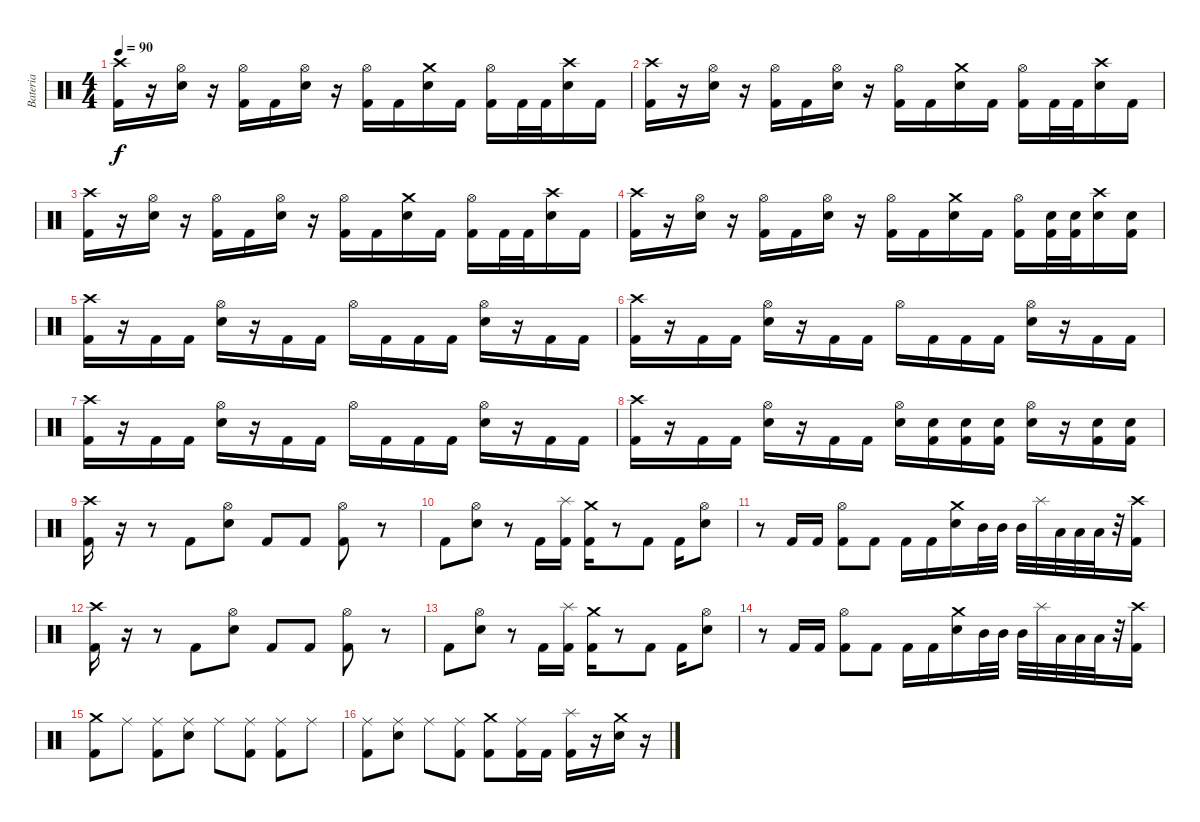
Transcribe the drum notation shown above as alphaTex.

\track ("Bateria" "Bateria") {instrument percussion}
\staff {score}
\articulation defaults
\ts (4 4)
\tempo 90
\clef neutral
\ks c
("Crash high (hit)" "Kick (hit) 2").16{dy f} r.16 ("Hi-Hat (open)" "Snare (hit) 2").16 r.16 ("Hi-Hat (open)" "Kick (hit) 2").16 "Kick (hit) 2".16 ("Hi-Hat (open)" "Snare (hit) 2").16 r.16 ("Hi-Hat (open)" "Kick (hit) 2").16 "Kick (hit) 2".16 ("Crash medium (hit)" "Snare (hit) 2").16 "Kick (hit) 2".16 ("Hi-Hat (open)" "Kick (hit) 2").16 "Kick (hit) 2".32 "Kick (hit) 2".32 ("Crash high (hit)" "Snare (hit) 2").16 "Kick (hit) 2".16 |
("Crash high (hit)" "Kick (hit) 2").16 r.16 ("Hi-Hat (open)" "Snare (hit) 2").16 r.16 ("Hi-Hat (open)" "Kick (hit) 2").16 "Kick (hit) 2".16 ("Hi-Hat (open)" "Snare (hit) 2").16 r.16 ("Hi-Hat (open)" "Kick (hit) 2").16 "Kick (hit) 2".16 ("Crash medium (hit)" "Snare (hit) 2").16 "Kick (hit) 2".16 ("Hi-Hat (open)" "Kick (hit) 2").16 "Kick (hit) 2".32 "Kick (hit) 2".32 ("Crash high (hit)" "Snare (hit) 2").16 "Kick (hit) 2".16 |
("Crash high (hit)" "Kick (hit) 2").16 r.16 ("Hi-Hat (open)" "Snare (hit) 2").16 r.16 ("Hi-Hat (open)" "Kick (hit) 2").16 "Kick (hit) 2".16 ("Hi-Hat (open)" "Snare (hit) 2").16 r.16 ("Hi-Hat (open)" "Kick (hit) 2").16 "Kick (hit) 2".16 ("Crash medium (hit)" "Snare (hit) 2").16 "Kick (hit) 2".16 ("Hi-Hat (open)" "Kick (hit) 2").16 "Kick (hit) 2".32 "Kick (hit) 2".32 ("Crash high (hit)" "Snare (hit) 2").16 "Kick (hit) 2".16 |
("Crash high (hit)" "Kick (hit) 2").16 r.16 ("Hi-Hat (open)" "Snare (hit) 2").16 r.16 ("Hi-Hat (open)" "Kick (hit) 2").16 "Kick (hit) 2".16 ("Hi-Hat (open)" "Snare (hit) 2").16 r.16 ("Hi-Hat (open)" "Kick (hit) 2").16 "Kick (hit) 2".16 ("Crash medium (hit)" "Snare (hit) 2").16 "Kick (hit) 2".16 ("Hi-Hat (open)" "Kick (hit) 2").16 ("Snare (hit) 2" "Kick (hit) 2").32 ("Snare (hit) 2" "Kick (hit) 2").32 ("Crash high (hit)" "Snare (hit) 2").16 ("Snare (hit) 2" "Kick (hit) 2").16 |
("Crash high (hit)" "Kick (hit) 2").16 r.16 "Kick (hit) 2".16 "Kick (hit) 2".16 ("Hi-Hat (open)" "Snare (hit) 2").16 r.16 "Kick (hit) 2".16 "Kick (hit) 2".16 "Hi-Hat (open)".16 "Kick (hit) 2".16 "Kick (hit) 2".16 "Kick (hit) 2".16 ("Hi-Hat (open)" "Snare (hit) 2").16 r.16 "Kick (hit) 2".16 "Kick (hit) 2".16 |
("Crash high (hit)" "Kick (hit) 2").16 r.16 "Kick (hit) 2".16 "Kick (hit) 2".16 ("Hi-Hat (open)" "Snare (hit) 2").16 r.16 "Kick (hit) 2".16 "Kick (hit) 2".16 "Hi-Hat (open)".16 "Kick (hit) 2".16 "Kick (hit) 2".16 "Kick (hit) 2".16 ("Hi-Hat (open)" "Snare (hit) 2").16 r.16 "Kick (hit) 2".16 "Kick (hit) 2".16 |
("Crash high (hit)" "Kick (hit) 2").16 r.16 "Kick (hit) 2".16 "Kick (hit) 2".16 ("Hi-Hat (open)" "Snare (hit) 2").16 r.16 "Kick (hit) 2".16 "Kick (hit) 2".16 "Hi-Hat (open)".16 "Kick (hit) 2".16 "Kick (hit) 2".16 "Kick (hit) 2".16 ("Hi-Hat (open)" "Snare (hit) 2").16 r.16 "Kick (hit) 2".16 "Kick (hit) 2".16 |
("Crash high (hit)" "Kick (hit) 2").16 r.16 "Kick (hit) 2".16 "Kick (hit) 2".16 ("Hi-Hat (open)" "Snare (hit) 2").16 r.16 "Kick (hit) 2".16 "Kick (hit) 2".16 ("Hi-Hat (open)" "Snare (hit) 2").16 ("Snare (hit) 2" "Kick (hit) 2").16 ("Snare (hit) 2" "Kick (hit) 2").16 ("Snare (hit) 2" "Kick (hit) 2").16 ("Hi-Hat (open)" "Snare (hit) 2").16 r.16 ("Snare (hit) 2" "Kick (hit) 2").16 ("Snare (hit) 2" "Kick (hit) 2").16 |
("Crash high (hit)" "Kick (hit) 2").16 r.16 r.8 "Kick (hit) 2".8 ("Hi-Hat (open)" "Snare (hit) 2").8 "Kick (hit) 2".8 "Kick (hit) 2".8 ("Hi-Hat (open)" "Kick (hit) 2").8 r.8 |
"Kick (hit) 2".8 ("Hi-Hat (open)" "Snare (hit) 2").8 r.8 "Kick (hit) 2".16 ("Splash (hit)" "Kick (hit) 2").16 ("Crash medium (hit)" "Kick (hit) 2").16 r.8 "Kick (hit) 2".8 "Kick (hit) 2".16 ("Hi-Hat (open)" "Snare (hit) 2").8 |
r.8 "Kick (hit) 2".16 "Kick (hit) 2".16 ("Hi-Hat (open)" "Kick (hit) 2").8 "Kick (hit) 2".8 "Kick (hit) 2".16 "Kick (hit) 2".16 ("Crash medium (hit)" "Snare (hit) 2").16 "Mid Tom (hit)".32 "Mid Tom (hit)".32 "Mid Tom (hit)".32 "Splash (hit)".32 "Low Tom (hit)".32 "Low Tom (hit)".32 "Low Tom (hit)".32 r.32 ("Crash high (hit)" "Kick (hit) 2").16 |
("Crash high (hit)" "Kick (hit) 2").16 r.16 r.8 "Kick (hit) 2".8 ("Hi-Hat (open)" "Snare (hit) 2").8 "Kick (hit) 2".8 "Kick (hit) 2".8 ("Hi-Hat (open)" "Kick (hit) 2").8 r.8 |
"Kick (hit) 2".8 ("Hi-Hat (open)" "Snare (hit) 2").8 r.8 "Kick (hit) 2".16 ("Splash (hit)" "Kick (hit) 2").16 ("Crash medium (hit)" "Kick (hit) 2").16 r.8 "Kick (hit) 2".8 "Kick (hit) 2".16 ("Hi-Hat (open)" "Snare (hit) 2").8 |
r.8 "Kick (hit) 2".16 "Kick (hit) 2".16 ("Hi-Hat (open)" "Kick (hit) 2").8 "Kick (hit) 2".8 "Kick (hit) 2".16 "Kick (hit) 2".16 ("Crash medium (hit)" "Snare (hit) 2").16 "Mid Tom (hit)".32 "Mid Tom (hit)".32 "Mid Tom (hit)".32 "Splash (hit)".32 "Low Tom (hit)".32 "Low Tom (hit)".32 "Low Tom (hit)".32 r.32 ("Crash high (hit)" "Kick (hit) 2").16 |
("Crash medium (hit)" "Kick (hit) 2").8 "Ride (middle)".8 ("Ride (middle)" "Kick (hit) 2").8 ("Ride (middle)" "Snare (hit) 2").8 "Ride (middle)".8 ("Ride (middle)" "Kick (hit) 2").8 ("Ride (middle)" "Kick (hit) 2").8 "Ride (middle)".8 |
("Ride (middle)" "Kick (hit) 2").8 ("Ride (middle)" "Snare (hit) 2").8 "Ride (middle)".8 ("Ride (middle)" "Kick (hit) 2").8 ("Crash medium (hit)" "Kick (hit) 2").8 ("Ride (middle)" "Kick (hit) 2").16 "Kick (hit) 2".16 ("Splash (hit)" "Kick (hit) 2").16 r.16 ("Crash medium (hit)" "Snare (hit) 2").16 r.16
